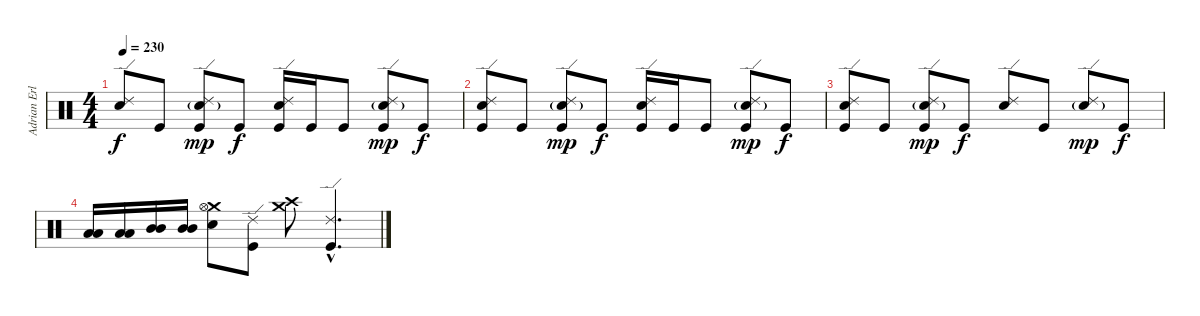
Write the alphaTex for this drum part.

\track ("Adrian Erlandsson - Drums" "Adrian Erl") {instrument percussion}
\staff {score}
\articulation defaults
\ts (4 4)
\tempo 230
\clef neutral
\ks c
("Ride (edge) 2" "Electric Snare (hit)").8{dy f} "Kick (hit)".8 ("Ride (edge) 2" "Electric Snare (hit)"{g} "Kick (hit)").8{dy mp} "Kick (hit)".8{dy f} ("Ride (edge) 2" "Electric Snare (hit)" "Kick (hit)").16 "Kick (hit)".16 "Kick (hit)".8 ("Ride (edge) 2" "Electric Snare (hit)"{g} "Kick (hit)").8{dy mp} "Kick (hit)".8{dy f} |
("Ride (edge) 2" "Electric Snare (hit)" "Kick (hit)").8 "Kick (hit)".8 ("Ride (edge) 2" "Electric Snare (hit)"{g} "Kick (hit)").8{dy mp} "Kick (hit)".8{dy f} ("Ride (edge) 2" "Electric Snare (hit)" "Kick (hit)").16 "Kick (hit)".16 "Kick (hit)".8 ("Ride (edge) 2" "Electric Snare (hit)"{g} "Kick (hit)").8{dy mp} "Kick (hit)".8{dy f} |
("Ride (edge) 2" "Electric Snare (hit)" "Kick (hit)").8 "Kick (hit)".8 ("Ride (edge) 2" "Electric Snare (hit)"{g} "Kick (hit)").8{dy mp} "Kick (hit)".8{dy f} ("Ride (edge) 2" "Electric Snare (hit)").8 "Kick (hit)".8 ("Ride (edge) 2" "Electric Snare (hit)"{g}).8{dy mp} "Kick (hit)".8{dy f} |
("Low Tom (hit)" "Low Tom (hit)").16 ("Low Tom (hit)" "Low Tom (hit)").16 ("Mid Tom (hit)" "Mid Tom (hit)").16 ("Mid Tom (hit)" "Mid Tom (hit)").16 ("Crash medium (hit)" "Hi-Hat (open)" "Electric Snare (hit)").8 ("Ride (edge) 2" "Kick (hit)").8 ("Crash medium (hit)" "Crash high (hit)").8 ("Ride (edge) 2"{hac} "Kick (hit)"{hac}).4{d}
